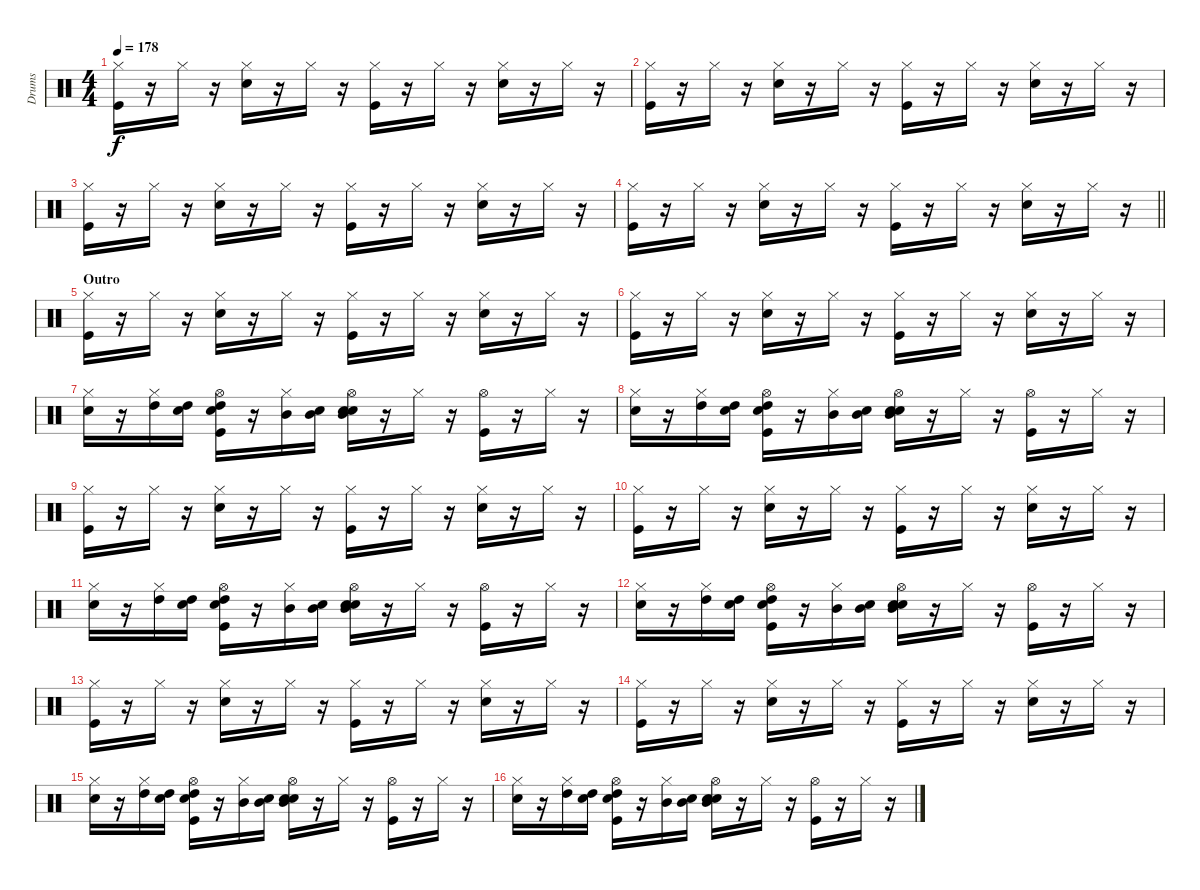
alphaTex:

\track ("Drums               " "Drums     ") {instrument percussion}
\staff {score}
\articulation defaults
\ts (4 4)
\tempo 178
\clef neutral
\ks c
("Kick (hit)" "Hi-Hat (closed)").16{dy f} r.16 "Hi-Hat (closed)".16 r.16 ("Snare (hit) 2" "Hi-Hat (closed)").16 r.16 "Hi-Hat (closed)".16 r.16 ("Kick (hit)" "Hi-Hat (closed)").16 r.16 "Hi-Hat (closed)".16 r.16 ("Snare (hit) 2" "Hi-Hat (closed)").16 r.16 "Hi-Hat (closed)".16 r.16 |
("Kick (hit)" "Hi-Hat (closed)").16 r.16 "Hi-Hat (closed)".16 r.16 ("Snare (hit) 2" "Hi-Hat (closed)").16 r.16 "Hi-Hat (closed)".16 r.16 ("Kick (hit)" "Hi-Hat (closed)").16 r.16 "Hi-Hat (closed)".16 r.16 ("Snare (hit) 2" "Hi-Hat (closed)").16 r.16 "Hi-Hat (closed)".16 r.16 |
("Kick (hit)" "Hi-Hat (closed)").16 r.16 "Hi-Hat (closed)".16 r.16 ("Snare (hit) 2" "Hi-Hat (closed)").16 r.16 "Hi-Hat (closed)".16 r.16 ("Kick (hit)" "Hi-Hat (closed)").16 r.16 "Hi-Hat (closed)".16 r.16 ("Snare (hit) 2" "Hi-Hat (closed)").16 r.16 "Hi-Hat (closed)".16 r.16 |
\barLineRight lightlight
("Kick (hit)" "Hi-Hat (closed)").16 r.16 "Hi-Hat (closed)".16 r.16 ("Snare (hit) 2" "Hi-Hat (closed)").16 r.16 "Hi-Hat (closed)".16 r.16 ("Kick (hit)" "Hi-Hat (closed)").16 r.16 "Hi-Hat (closed)".16 r.16 ("Snare (hit) 2" "Hi-Hat (closed)").16 r.16 "Hi-Hat (closed)".16 r.16 |
\section ("" "Outro")
("Kick (hit)" "Hi-Hat (closed)").16 r.16 "Hi-Hat (closed)".16 r.16 ("Snare (hit) 2" "Hi-Hat (closed)").16 r.16 "Hi-Hat (closed)".16 r.16 ("Kick (hit)" "Hi-Hat (closed)").16 r.16 "Hi-Hat (closed)".16 r.16 ("Snare (hit) 2" "Hi-Hat (closed)").16 r.16 "Hi-Hat (closed)".16 r.16 |
("Kick (hit)" "Hi-Hat (closed)").16 r.16 "Hi-Hat (closed)".16 r.16 ("Snare (hit) 2" "Hi-Hat (closed)").16 r.16 "Hi-Hat (closed)".16 r.16 ("Kick (hit)" "Hi-Hat (closed)").16 r.16 "Hi-Hat (closed)".16 r.16 ("Snare (hit) 2" "Hi-Hat (closed)").16 r.16 "Hi-Hat (closed)".16 r.16 |
("Snare (hit) 2" "Hi-Hat (closed)").16 r.16 ("Hi-Hat (closed)" "High Tom (hit)").16 ("Snare (hit)" "High Tom (hit)").16 ("Snare (hit)" "Kick (hit)" "High Tom (hit)" "Hi-Hat (open)").16 r.16 ("Hi-Hat (closed)" "Mid Tom (hit)").16 ("Snare (hit)" "Mid Tom (hit)").16 ("Snare (hit)" "Snare (hit) 2" "Mid Tom (hit)" "Hi-Hat (open)").16 r.16 "Hi-Hat (closed)".16 r.16 ("Kick (hit)" "Hi-Hat (open)").16 r.16 "Hi-Hat (closed)".16 r.16 |
("Snare (hit) 2" "Hi-Hat (closed)").16 r.16 ("Hi-Hat (closed)" "High Tom (hit)").16 ("Snare (hit)" "High Tom (hit)").16 ("Snare (hit)" "Kick (hit)" "High Tom (hit)" "Hi-Hat (open)").16 r.16 ("Hi-Hat (closed)" "Mid Tom (hit)").16 ("Snare (hit)" "Mid Tom (hit)").16 ("Snare (hit)" "Snare (hit) 2" "Mid Tom (hit)" "Hi-Hat (open)").16 r.16 "Hi-Hat (closed)".16 r.16 ("Kick (hit)" "Hi-Hat (open)").16 r.16 "Hi-Hat (closed)".16 r.16 |
("Kick (hit)" "Hi-Hat (closed)").16 r.16 "Hi-Hat (closed)".16 r.16 ("Snare (hit) 2" "Hi-Hat (closed)").16 r.16 "Hi-Hat (closed)".16 r.16 ("Kick (hit)" "Hi-Hat (closed)").16 r.16 "Hi-Hat (closed)".16 r.16 ("Snare (hit) 2" "Hi-Hat (closed)").16 r.16 "Hi-Hat (closed)".16 r.16 |
("Kick (hit)" "Hi-Hat (closed)").16 r.16 "Hi-Hat (closed)".16 r.16 ("Snare (hit) 2" "Hi-Hat (closed)").16 r.16 "Hi-Hat (closed)".16 r.16 ("Kick (hit)" "Hi-Hat (closed)").16 r.16 "Hi-Hat (closed)".16 r.16 ("Snare (hit) 2" "Hi-Hat (closed)").16 r.16 "Hi-Hat (closed)".16 r.16 |
("Snare (hit) 2" "Hi-Hat (closed)").16 r.16 ("Hi-Hat (closed)" "High Tom (hit)").16 ("Snare (hit)" "High Tom (hit)").16 ("Snare (hit)" "Kick (hit)" "High Tom (hit)" "Hi-Hat (open)").16 r.16 ("Hi-Hat (closed)" "Mid Tom (hit)").16 ("Snare (hit)" "Mid Tom (hit)").16 ("Snare (hit)" "Snare (hit) 2" "Mid Tom (hit)" "Hi-Hat (open)").16 r.16 "Hi-Hat (closed)".16 r.16 ("Kick (hit)" "Hi-Hat (open)").16 r.16 "Hi-Hat (closed)".16 r.16 |
("Snare (hit) 2" "Hi-Hat (closed)").16 r.16 ("Hi-Hat (closed)" "High Tom (hit)").16 ("Snare (hit)" "High Tom (hit)").16 ("Snare (hit)" "Kick (hit)" "High Tom (hit)" "Hi-Hat (open)").16 r.16 ("Hi-Hat (closed)" "Mid Tom (hit)").16 ("Snare (hit)" "Mid Tom (hit)").16 ("Snare (hit)" "Snare (hit) 2" "Mid Tom (hit)" "Hi-Hat (open)").16 r.16 "Hi-Hat (closed)".16 r.16 ("Kick (hit)" "Hi-Hat (open)").16 r.16 "Hi-Hat (closed)".16 r.16 |
("Kick (hit)" "Hi-Hat (closed)").16 r.16 "Hi-Hat (closed)".16 r.16 ("Snare (hit) 2" "Hi-Hat (closed)").16 r.16 "Hi-Hat (closed)".16 r.16 ("Kick (hit)" "Hi-Hat (closed)").16 r.16 "Hi-Hat (closed)".16 r.16 ("Snare (hit) 2" "Hi-Hat (closed)").16 r.16 "Hi-Hat (closed)".16 r.16 |
("Kick (hit)" "Hi-Hat (closed)").16 r.16 "Hi-Hat (closed)".16 r.16 ("Snare (hit) 2" "Hi-Hat (closed)").16 r.16 "Hi-Hat (closed)".16 r.16 ("Kick (hit)" "Hi-Hat (closed)").16 r.16 "Hi-Hat (closed)".16 r.16 ("Snare (hit) 2" "Hi-Hat (closed)").16 r.16 "Hi-Hat (closed)".16 r.16 |
("Snare (hit) 2" "Hi-Hat (closed)").16 r.16 ("Hi-Hat (closed)" "High Tom (hit)").16 ("Snare (hit)" "High Tom (hit)").16 ("Snare (hit)" "Kick (hit)" "High Tom (hit)" "Hi-Hat (open)").16 r.16 ("Hi-Hat (closed)" "Mid Tom (hit)").16 ("Snare (hit)" "Mid Tom (hit)").16 ("Snare (hit)" "Snare (hit) 2" "Mid Tom (hit)" "Hi-Hat (open)").16 r.16 "Hi-Hat (closed)".16 r.16 ("Kick (hit)" "Hi-Hat (open)").16 r.16 "Hi-Hat (closed)".16 r.16 |
("Snare (hit) 2" "Hi-Hat (closed)").16 r.16 ("Hi-Hat (closed)" "High Tom (hit)").16 ("Snare (hit)" "High Tom (hit)").16 ("Snare (hit)" "Kick (hit)" "High Tom (hit)" "Hi-Hat (open)").16 r.16 ("Hi-Hat (closed)" "Mid Tom (hit)").16 ("Snare (hit)" "Mid Tom (hit)").16 ("Snare (hit)" "Snare (hit) 2" "Mid Tom (hit)" "Hi-Hat (open)").16 r.16 "Hi-Hat (closed)".16 r.16 ("Kick (hit)" "Hi-Hat (open)").16 r.16 "Hi-Hat (closed)".16 r.16
